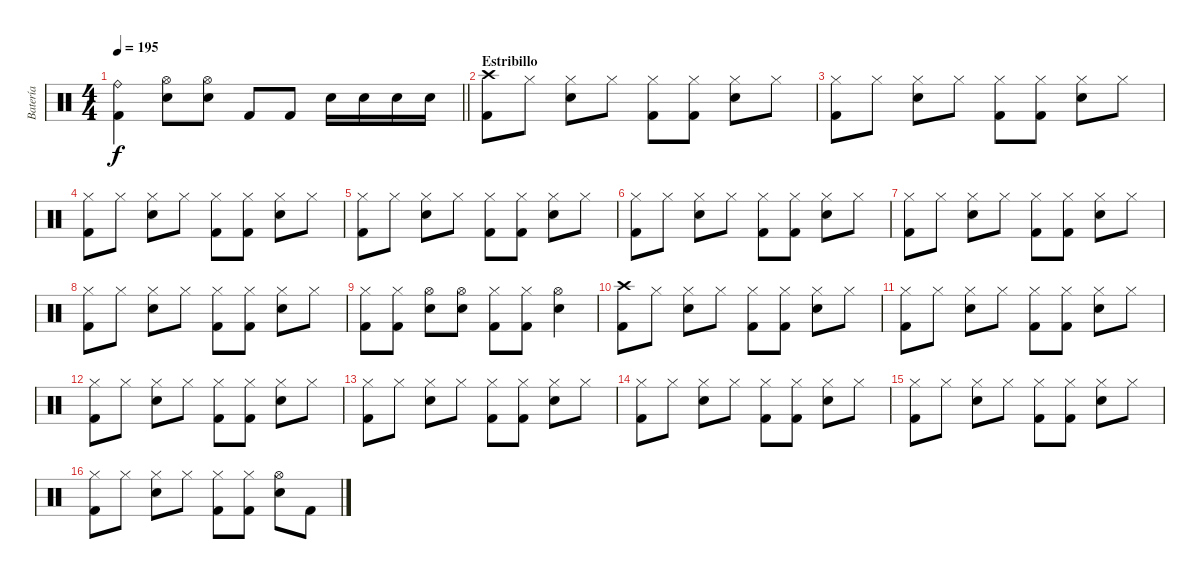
\track ("Batería" "Batería") {instrument percussion}
\staff {score}
\articulation defaults
\ts (4 4)
\tempo 195
\clef neutral
\barLineRight lightlight
\ks c
("Ride (bell)" "Kick (hit) 2").4{dy f} ("Hi-Hat (open)" "Snare (hit) 2").8 ("Hi-Hat (open)" "Snare (hit) 2").8 "Kick (hit) 2".8 "Kick (hit) 2".8 "Snare (hit) 2".16 "Snare (hit) 2".16 "Snare (hit) 2".16 "Snare (hit) 2".16 |
\section ("" "Estribillo")
("Crash high (hit)" "Kick (hit) 2").8 "Hi-Hat (closed)".8 ("Hi-Hat (closed)" "Snare (hit) 2").8 "Hi-Hat (closed)".8 ("Hi-Hat (closed)" "Kick (hit) 2").8 ("Hi-Hat (closed)" "Kick (hit) 2").8 ("Hi-Hat (closed)" "Snare (hit) 2").8 "Hi-Hat (closed)".8 |
("Hi-Hat (closed)" "Kick (hit) 2").8 "Hi-Hat (closed)".8 ("Hi-Hat (closed)" "Snare (hit) 2").8 "Hi-Hat (closed)".8 ("Hi-Hat (closed)" "Kick (hit) 2").8 ("Hi-Hat (closed)" "Kick (hit) 2").8 ("Hi-Hat (closed)" "Snare (hit) 2").8 "Hi-Hat (closed)".8 |
("Hi-Hat (closed)" "Kick (hit) 2").8 "Hi-Hat (closed)".8 ("Hi-Hat (closed)" "Snare (hit) 2").8 "Hi-Hat (closed)".8 ("Hi-Hat (closed)" "Kick (hit) 2").8 ("Hi-Hat (closed)" "Kick (hit) 2").8 ("Hi-Hat (closed)" "Snare (hit) 2").8 "Hi-Hat (closed)".8 |
("Hi-Hat (closed)" "Kick (hit) 2").8 "Hi-Hat (closed)".8 ("Hi-Hat (closed)" "Snare (hit) 2").8 "Hi-Hat (closed)".8 ("Hi-Hat (closed)" "Kick (hit) 2").8 ("Hi-Hat (closed)" "Kick (hit) 2").8 ("Hi-Hat (closed)" "Snare (hit) 2").8 "Hi-Hat (closed)".8 |
("Hi-Hat (closed)" "Kick (hit) 2").8 "Hi-Hat (closed)".8 ("Hi-Hat (closed)" "Snare (hit) 2").8 "Hi-Hat (closed)".8 ("Hi-Hat (closed)" "Kick (hit) 2").8 ("Hi-Hat (closed)" "Kick (hit) 2").8 ("Hi-Hat (closed)" "Snare (hit) 2").8 "Hi-Hat (closed)".8 |
("Hi-Hat (closed)" "Kick (hit) 2").8 "Hi-Hat (closed)".8 ("Hi-Hat (closed)" "Snare (hit) 2").8 "Hi-Hat (closed)".8 ("Hi-Hat (closed)" "Kick (hit) 2").8 ("Hi-Hat (closed)" "Kick (hit) 2").8 ("Hi-Hat (closed)" "Snare (hit) 2").8 "Hi-Hat (closed)".8 |
("Hi-Hat (closed)" "Kick (hit) 2").8 "Hi-Hat (closed)".8 ("Hi-Hat (closed)" "Snare (hit) 2").8 "Hi-Hat (closed)".8 ("Hi-Hat (closed)" "Kick (hit) 2").8 ("Hi-Hat (closed)" "Kick (hit) 2").8 ("Hi-Hat (closed)" "Snare (hit) 2").8 "Hi-Hat (closed)".8 |
("Hi-Hat (closed)" "Kick (hit) 2").8 ("Hi-Hat (closed)" "Kick (hit) 2").8 ("Hi-Hat (open)" "Snare (hit) 2").8 ("Hi-Hat (open)" "Snare (hit) 2").8 ("Hi-Hat (closed)" "Kick (hit) 2").8 ("Hi-Hat (closed)" "Kick (hit) 2").8 ("Hi-Hat (open)" "Snare (hit) 2").4 |
("Crash high (hit)" "Kick (hit) 2").8 "Hi-Hat (closed)".8 ("Hi-Hat (closed)" "Snare (hit) 2").8 "Hi-Hat (closed)".8 ("Hi-Hat (closed)" "Kick (hit) 2").8 ("Hi-Hat (closed)" "Kick (hit) 2").8 ("Hi-Hat (closed)" "Snare (hit) 2").8 "Hi-Hat (closed)".8 |
("Hi-Hat (closed)" "Kick (hit) 2").8 "Hi-Hat (closed)".8 ("Hi-Hat (closed)" "Snare (hit) 2").8 "Hi-Hat (closed)".8 ("Hi-Hat (closed)" "Kick (hit) 2").8 ("Hi-Hat (closed)" "Kick (hit) 2").8 ("Hi-Hat (closed)" "Snare (hit) 2").8 "Hi-Hat (closed)".8 |
("Hi-Hat (closed)" "Kick (hit) 2").8 "Hi-Hat (closed)".8 ("Hi-Hat (closed)" "Snare (hit) 2").8 "Hi-Hat (closed)".8 ("Hi-Hat (closed)" "Kick (hit) 2").8 ("Hi-Hat (closed)" "Kick (hit) 2").8 ("Hi-Hat (closed)" "Snare (hit) 2").8 "Hi-Hat (closed)".8 |
("Hi-Hat (closed)" "Kick (hit) 2").8 "Hi-Hat (closed)".8 ("Hi-Hat (closed)" "Snare (hit) 2").8 "Hi-Hat (closed)".8 ("Hi-Hat (closed)" "Kick (hit) 2").8 ("Hi-Hat (closed)" "Kick (hit) 2").8 ("Hi-Hat (closed)" "Snare (hit) 2").8 "Hi-Hat (closed)".8 |
("Hi-Hat (closed)" "Kick (hit) 2").8 "Hi-Hat (closed)".8 ("Hi-Hat (closed)" "Snare (hit) 2").8 "Hi-Hat (closed)".8 ("Hi-Hat (closed)" "Kick (hit) 2").8 ("Hi-Hat (closed)" "Kick (hit) 2").8 ("Hi-Hat (closed)" "Snare (hit) 2").8 "Hi-Hat (closed)".8 |
("Hi-Hat (closed)" "Kick (hit) 2").8 "Hi-Hat (closed)".8 ("Hi-Hat (closed)" "Snare (hit) 2").8 "Hi-Hat (closed)".8 ("Hi-Hat (closed)" "Kick (hit) 2").8 ("Hi-Hat (closed)" "Kick (hit) 2").8 ("Hi-Hat (closed)" "Snare (hit) 2").8 "Hi-Hat (closed)".8 |
("Hi-Hat (closed)" "Kick (hit) 2").8 "Hi-Hat (closed)".8 ("Hi-Hat (closed)" "Snare (hit) 2").8 "Hi-Hat (closed)".8 ("Hi-Hat (closed)" "Kick (hit) 2").8 ("Hi-Hat (closed)" "Kick (hit) 2").8 ("Hi-Hat (open)" "Snare (hit) 2").8 "Kick (hit) 2".8
